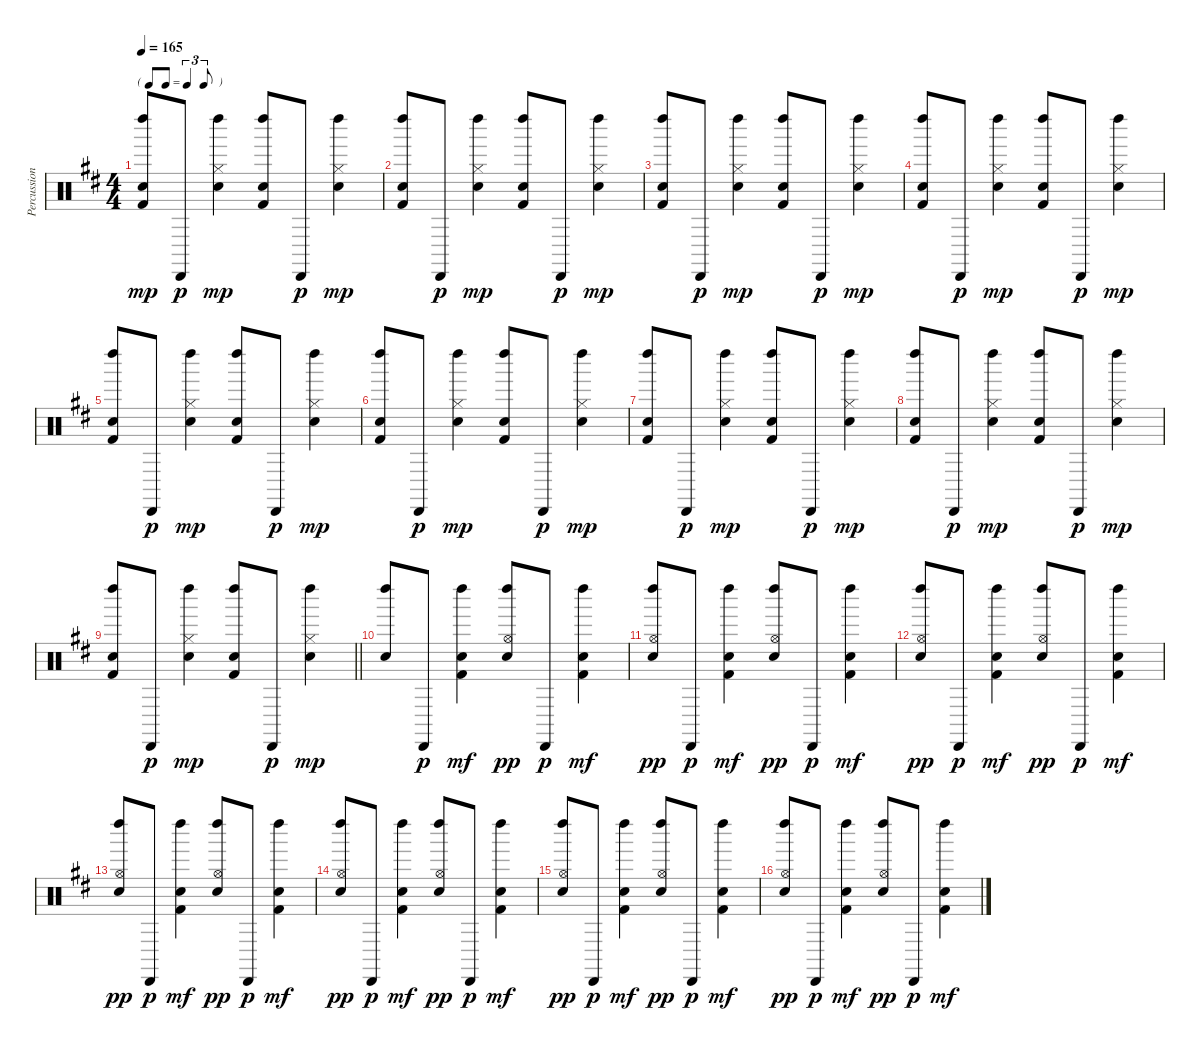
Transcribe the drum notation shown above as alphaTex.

\track ("Percussion" "Percussion") {instrument percussion}
\staff {score}
\articulation defaults
\ts (4 4)
\tf triplet8th
\tempo 165
\clef neutral
\ks d
("Left Maraca (hit)" "Snare (hit) 2" "Kick (hit) 2").8{dy mp} "Cabasa (hit)".8{dy p} ("Left Maraca (hit)" "Hi-Hat (closed)" "Snare (hit) 2").4{dy mp} ("Left Maraca (hit)" "Snare (hit) 2" "Kick (hit) 2").8 "Cabasa (hit)".8{dy p} ("Left Maraca (hit)" "Hi-Hat (closed)" "Snare (hit) 2").4{dy mp} |
("Left Maraca (hit)" "Snare (hit) 2" "Kick (hit) 2").8 "Cabasa (hit)".8{dy p} ("Left Maraca (hit)" "Hi-Hat (closed)" "Snare (hit) 2").4{dy mp} ("Left Maraca (hit)" "Snare (hit) 2" "Kick (hit) 2").8 "Cabasa (hit)".8{dy p} ("Left Maraca (hit)" "Hi-Hat (closed)" "Snare (hit) 2").4{dy mp} |
("Left Maraca (hit)" "Snare (hit) 2" "Kick (hit) 2").8 "Cabasa (hit)".8{dy p} ("Left Maraca (hit)" "Hi-Hat (closed)" "Snare (hit) 2").4{dy mp} ("Left Maraca (hit)" "Snare (hit) 2" "Kick (hit) 2").8 "Cabasa (hit)".8{dy p} ("Left Maraca (hit)" "Hi-Hat (closed)" "Snare (hit) 2").4{dy mp} |
("Left Maraca (hit)" "Snare (hit) 2" "Kick (hit) 2").8 "Cabasa (hit)".8{dy p} ("Left Maraca (hit)" "Hi-Hat (closed)" "Snare (hit) 2").4{dy mp} ("Left Maraca (hit)" "Snare (hit) 2" "Kick (hit) 2").8 "Cabasa (hit)".8{dy p} ("Left Maraca (hit)" "Hi-Hat (closed)" "Snare (hit) 2").4{dy mp} |
("Left Maraca (hit)" "Snare (hit) 2" "Kick (hit) 2").8 "Cabasa (hit)".8{dy p} ("Left Maraca (hit)" "Hi-Hat (closed)" "Snare (hit) 2").4{dy mp} ("Left Maraca (hit)" "Snare (hit) 2" "Kick (hit) 2").8 "Cabasa (hit)".8{dy p} ("Left Maraca (hit)" "Hi-Hat (closed)" "Snare (hit) 2").4{dy mp} |
("Left Maraca (hit)" "Snare (hit) 2" "Kick (hit) 2").8 "Cabasa (hit)".8{dy p} ("Left Maraca (hit)" "Hi-Hat (closed)" "Snare (hit) 2").4{dy mp} ("Left Maraca (hit)" "Snare (hit) 2" "Kick (hit) 2").8 "Cabasa (hit)".8{dy p} ("Left Maraca (hit)" "Hi-Hat (closed)" "Snare (hit) 2").4{dy mp} |
("Left Maraca (hit)" "Snare (hit) 2" "Kick (hit) 2").8 "Cabasa (hit)".8{dy p} ("Left Maraca (hit)" "Hi-Hat (closed)" "Snare (hit) 2").4{dy mp} ("Left Maraca (hit)" "Snare (hit) 2" "Kick (hit) 2").8 "Cabasa (hit)".8{dy p} ("Left Maraca (hit)" "Hi-Hat (closed)" "Snare (hit) 2").4{dy mp} |
("Left Maraca (hit)" "Snare (hit) 2" "Kick (hit) 2").8 "Cabasa (hit)".8{dy p} ("Left Maraca (hit)" "Hi-Hat (closed)" "Snare (hit) 2").4{dy mp} ("Left Maraca (hit)" "Snare (hit) 2" "Kick (hit) 2").8 "Cabasa (hit)".8{dy p} ("Left Maraca (hit)" "Hi-Hat (closed)" "Snare (hit) 2").4{dy mp} |
\barLineRight lightlight
("Left Maraca (hit)" "Snare (hit) 2" "Kick (hit) 2").8 "Cabasa (hit)".8{dy p} ("Left Maraca (hit)" "Hi-Hat (closed)" "Snare (hit) 2").4{dy mp} ("Left Maraca (hit)" "Snare (hit) 2" "Kick (hit) 2").8 "Cabasa (hit)".8{dy p} ("Left Maraca (hit)" "Hi-Hat (closed)" "Snare (hit) 2").4{dy mp} |
("Left Maraca (hit)" "Snare (hit) 2").8 "Cabasa (hit)".8{dy p} ("Snare (hit) 2" "Kick (hit) 2" "Left Maraca (hit)").4{dy mf} ("Snare (hit) 2" "Hi-Hat (open)" "Left Maraca (hit)").8{dy pp} "Cabasa (hit)".8{dy p} ("Kick (hit) 2" "Snare (hit) 2" "Left Maraca (hit)").4{dy mf} |
("Snare (hit) 2" "Hi-Hat (open)" "Left Maraca (hit)").8{dy pp} "Cabasa (hit)".8{dy p} ("Kick (hit) 2" "Snare (hit) 2" "Left Maraca (hit)").4{dy mf} ("Snare (hit) 2" "Hi-Hat (open)" "Left Maraca (hit)").8{dy pp} "Cabasa (hit)".8{dy p} ("Kick (hit) 2" "Snare (hit) 2" "Left Maraca (hit)").4{dy mf} |
("Snare (hit) 2" "Hi-Hat (open)" "Left Maraca (hit)").8{dy pp} "Cabasa (hit)".8{dy p} ("Kick (hit) 2" "Snare (hit) 2" "Left Maraca (hit)").4{dy mf} ("Snare (hit) 2" "Hi-Hat (open)" "Left Maraca (hit)").8{dy pp} "Cabasa (hit)".8{dy p} ("Kick (hit) 2" "Snare (hit) 2" "Left Maraca (hit)").4{dy mf} |
("Snare (hit) 2" "Hi-Hat (open)" "Left Maraca (hit)").8{dy pp} "Cabasa (hit)".8{dy p} ("Kick (hit) 2" "Snare (hit) 2" "Left Maraca (hit)").4{dy mf} ("Snare (hit) 2" "Hi-Hat (open)" "Left Maraca (hit)").8{dy pp} "Cabasa (hit)".8{dy p} ("Kick (hit) 2" "Snare (hit) 2" "Left Maraca (hit)").4{dy mf} |
("Snare (hit) 2" "Hi-Hat (open)" "Left Maraca (hit)").8{dy pp} "Cabasa (hit)".8{dy p} ("Kick (hit) 2" "Snare (hit) 2" "Left Maraca (hit)").4{dy mf} ("Snare (hit) 2" "Hi-Hat (open)" "Left Maraca (hit)").8{dy pp} "Cabasa (hit)".8{dy p} ("Kick (hit) 2" "Snare (hit) 2" "Left Maraca (hit)").4{dy mf} |
("Snare (hit) 2" "Hi-Hat (open)" "Left Maraca (hit)").8{dy pp} "Cabasa (hit)".8{dy p} ("Kick (hit) 2" "Snare (hit) 2" "Left Maraca (hit)").4{dy mf} ("Snare (hit) 2" "Hi-Hat (open)" "Left Maraca (hit)").8{dy pp} "Cabasa (hit)".8{dy p} ("Kick (hit) 2" "Snare (hit) 2" "Left Maraca (hit)").4{dy mf} |
("Snare (hit) 2" "Hi-Hat (open)" "Left Maraca (hit)").8{dy pp} "Cabasa (hit)".8{dy p} ("Kick (hit) 2" "Snare (hit) 2" "Left Maraca (hit)").4{dy mf} ("Snare (hit) 2" "Hi-Hat (open)" "Left Maraca (hit)").8{dy pp} "Cabasa (hit)".8{dy p} ("Kick (hit) 2" "Snare (hit) 2" "Left Maraca (hit)").4{dy mf}
